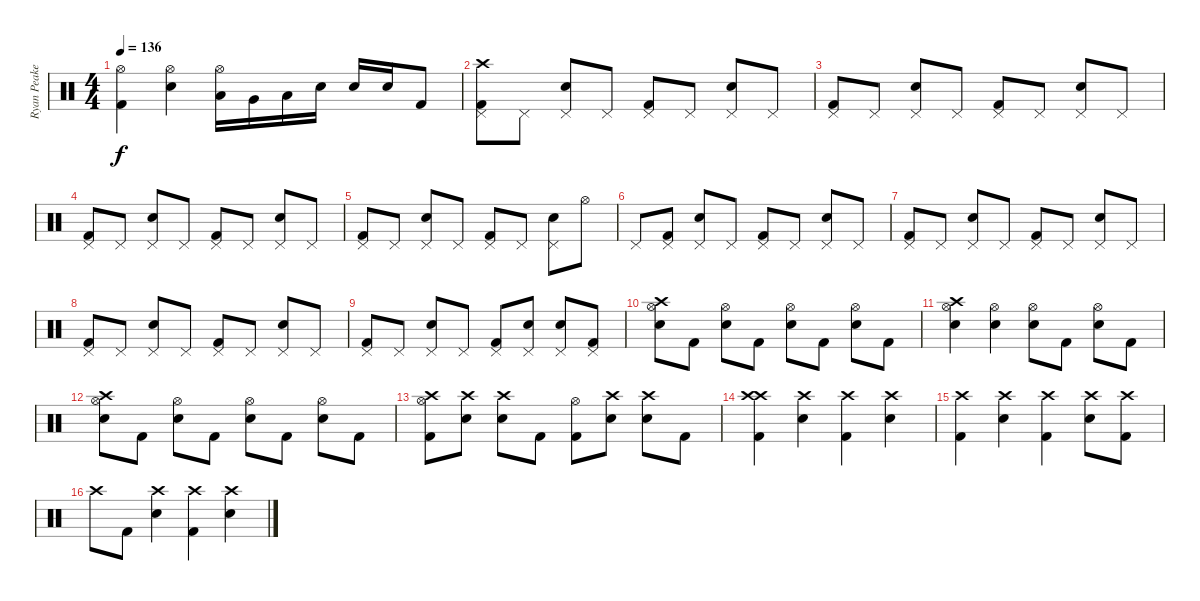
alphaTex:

\track ("Ryan Peake" "Ryan Peake") {instrument percussion}
\staff {score}
\articulation defaults
\ts (4 4)
\tempo 136
\clef neutral
\ks c
("Kick (hit) 2" "Hi-Hat (open)").4{dy f} ("Snare (hit) 2" "Hi-Hat (open)").4 ("Low Tom (hit)" "Hi-Hat (open)").16 "Very Low Tom (hit)".16 "Low Floor Tom (hit)".16 "Snare (hit) 2".16 "Snare (hit) 2".16 "Snare (hit) 2".16 "Kick (hit) 2".8 |
("Kick (hit) 2" "Pedal Hi-Hat (hit)" "Crash high (hit)").8 "Pedal Hi-Hat (hit)".8 ("Snare (hit) 2" "Pedal Hi-Hat (hit)").8 "Pedal Hi-Hat (hit)".8 ("Kick (hit) 2" "Pedal Hi-Hat (hit)").8 "Pedal Hi-Hat (hit)".8 ("Snare (hit) 2" "Pedal Hi-Hat (hit)").8 "Pedal Hi-Hat (hit)".8 |
("Kick (hit) 2" "Pedal Hi-Hat (hit)").8 "Pedal Hi-Hat (hit)".8 ("Snare (hit) 2" "Pedal Hi-Hat (hit)").8 "Pedal Hi-Hat (hit)".8 ("Kick (hit) 2" "Pedal Hi-Hat (hit)").8 "Pedal Hi-Hat (hit)".8 ("Snare (hit) 2" "Pedal Hi-Hat (hit)").8 "Pedal Hi-Hat (hit)".8 |
("Kick (hit) 2" "Pedal Hi-Hat (hit)").8 "Pedal Hi-Hat (hit)".8 ("Snare (hit) 2" "Pedal Hi-Hat (hit)").8 "Pedal Hi-Hat (hit)".8 ("Kick (hit) 2" "Pedal Hi-Hat (hit)").8 "Pedal Hi-Hat (hit)".8 ("Snare (hit) 2" "Pedal Hi-Hat (hit)").8 "Pedal Hi-Hat (hit)".8 |
("Kick (hit) 2" "Pedal Hi-Hat (hit)").8 "Pedal Hi-Hat (hit)".8 ("Snare (hit) 2" "Pedal Hi-Hat (hit)").8 "Pedal Hi-Hat (hit)".8 ("Kick (hit) 2" "Pedal Hi-Hat (hit)").8 "Pedal Hi-Hat (hit)".8 ("Snare (hit) 2" "Pedal Hi-Hat (hit)").8 "Hi-Hat (open)".8 |
"Pedal Hi-Hat (hit)".8 ("Kick (hit) 2" "Pedal Hi-Hat (hit)").8 ("Snare (hit) 2" "Pedal Hi-Hat (hit)").8 "Pedal Hi-Hat (hit)".8 ("Kick (hit) 2" "Pedal Hi-Hat (hit)").8 "Pedal Hi-Hat (hit)".8 ("Snare (hit) 2" "Pedal Hi-Hat (hit)").8 "Pedal Hi-Hat (hit)".8 |
("Kick (hit) 2" "Pedal Hi-Hat (hit)").8 "Pedal Hi-Hat (hit)".8 ("Snare (hit) 2" "Pedal Hi-Hat (hit)").8 "Pedal Hi-Hat (hit)".8 ("Kick (hit) 2" "Pedal Hi-Hat (hit)").8 "Pedal Hi-Hat (hit)".8 ("Snare (hit) 2" "Pedal Hi-Hat (hit)").8 "Pedal Hi-Hat (hit)".8 |
("Kick (hit) 2" "Pedal Hi-Hat (hit)").8 "Pedal Hi-Hat (hit)".8 ("Snare (hit) 2" "Pedal Hi-Hat (hit)").8 "Pedal Hi-Hat (hit)".8 ("Kick (hit) 2" "Pedal Hi-Hat (hit)").8 "Pedal Hi-Hat (hit)".8 ("Snare (hit) 2" "Pedal Hi-Hat (hit)").8 "Pedal Hi-Hat (hit)".8 |
("Kick (hit) 2" "Pedal Hi-Hat (hit)").8 "Pedal Hi-Hat (hit)".8 ("Snare (hit) 2" "Pedal Hi-Hat (hit)").8 "Pedal Hi-Hat (hit)".8 ("Kick (hit) 2" "Pedal Hi-Hat (hit)").8 ("Snare (hit) 2" "Pedal Hi-Hat (hit)").8 ("Snare (hit) 2" "Pedal Hi-Hat (hit)").8 ("Kick (hit) 2" "Pedal Hi-Hat (hit)").8 |
("Snare (hit) 2" "Hi-Hat (open)" "Crash high (hit)").8 "Kick (hit) 2".8 ("Snare (hit) 2" "Hi-Hat (open)").8 "Kick (hit) 2".8 ("Snare (hit) 2" "Hi-Hat (open)").8 "Kick (hit) 2".8 ("Snare (hit) 2" "Hi-Hat (open)").8 "Kick (hit) 2".8 |
("Snare (hit) 2" "Hi-Hat (open)" "Crash high (hit)").4 ("Snare (hit) 2" "Hi-Hat (open)").4 ("Snare (hit) 2" "Hi-Hat (open)").8 "Kick (hit) 2".8 ("Snare (hit) 2" "Hi-Hat (open)").8 "Kick (hit) 2".8 |
("Snare (hit) 2" "Hi-Hat (open)" "Crash high (hit)").8 "Kick (hit) 2".8 ("Snare (hit) 2" "Hi-Hat (open)").8 "Kick (hit) 2".8 ("Snare (hit) 2" "Hi-Hat (open)").8 "Kick (hit) 2".8 ("Snare (hit) 2" "Hi-Hat (open)").8 "Kick (hit) 2".8 |
("Kick (hit) 2" "Hi-Hat (open)" "Crash high (hit)").8 ("Snare (hit) 2" "Crash high (hit)").8 ("Snare (hit) 2" "Crash high (hit)").8 "Kick (hit) 2".8 ("Kick (hit) 2" "Hi-Hat (open)").8 ("Snare (hit) 2" "Crash high (hit)").8 ("Snare (hit) 2" "Crash high (hit)").8 "Kick (hit) 2".8 |
("Kick (hit) 2" "Crash high (hit)" "Crash high (hit)").4 ("Snare (hit) 2" "Crash high (hit)").4 ("Kick (hit) 2" "Crash high (hit)").4 ("Snare (hit) 2" "Crash high (hit)").4 |
("Kick (hit) 2" "Crash high (hit)").4 ("Snare (hit) 2" "Crash high (hit)").4 ("Kick (hit) 2" "Crash high (hit)").4 ("Snare (hit) 2" "Crash high (hit)").8 ("Kick (hit) 2" "Crash high (hit)").8 |
"Crash high (hit)".8 "Kick (hit) 2".8 ("Snare (hit) 2" "Crash high (hit)").4 ("Kick (hit) 2" "Crash high (hit)").4 ("Snare (hit) 2" "Crash high (hit)").4
